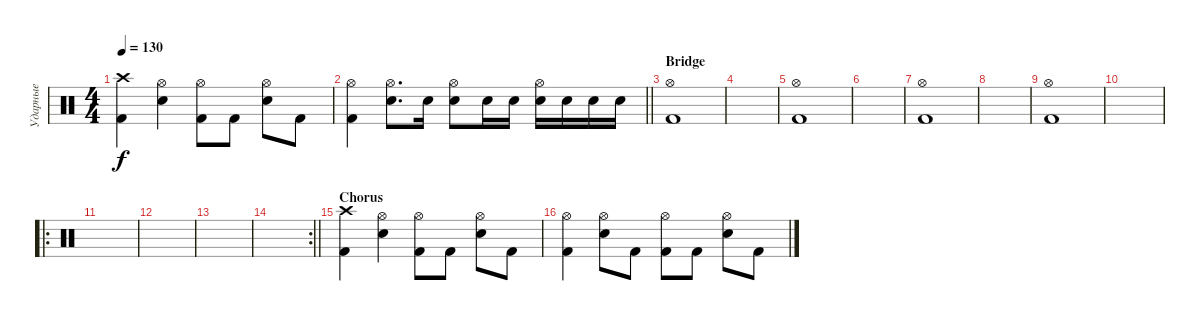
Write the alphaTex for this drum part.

\track ("Ударные" "Ударные") {instrument percussion}
\staff {score}
\articulation defaults
\ts (4 4)
\tempo 130
\clef neutral
\ks c
("Crash high (hit)" "Kick (hit) 2").4{dy f} ("Hi-Hat (open)" "Snare (hit) 2").4 ("Hi-Hat (open)" "Kick (hit) 2").8 "Kick (hit) 2".8 ("Hi-Hat (open)" "Snare (hit) 2").8 "Kick (hit) 2".8 |
\barLineRight lightlight
("Hi-Hat (open)" "Kick (hit) 2").4 ("Hi-Hat (open)" "Snare (hit) 2").8{d} "Snare (hit) 2".16 ("Hi-Hat (open)" "Snare (hit) 2").8 "Snare (hit) 2".16 "Snare (hit) 2".16 ("Hi-Hat (open)" "Snare (hit) 2").16 "Snare (hit) 2".16 "Snare (hit) 2".16 "Snare (hit) 2".16 |
\section ("" "Bridge")
("Hi-Hat (open)" "Kick (hit) 2").1 |
|
("Hi-Hat (open)" "Kick (hit) 2").1 |
|
("Hi-Hat (open)" "Kick (hit) 2").1 |
|
("Hi-Hat (open)" "Kick (hit) 2").1 |
|
\ro
|
|
|
\rc 2
\barLineRight lightlight
|
\section ("" "Chorus")
("Crash high (hit)" "Kick (hit) 2").4 ("Hi-Hat (open)" "Snare (hit) 2").4 ("Hi-Hat (open)" "Kick (hit) 2").8 "Kick (hit) 2".8 ("Hi-Hat (open)" "Snare (hit) 2").8 "Kick (hit) 2".8 |
("Hi-Hat (open)" "Kick (hit) 2").4 ("Hi-Hat (open)" "Snare (hit) 2").8 "Kick (hit) 2".8 ("Hi-Hat (open)" "Kick (hit) 2").8 "Kick (hit) 2".8 ("Hi-Hat (open)" "Snare (hit) 2").8 "Kick (hit) 2".8
